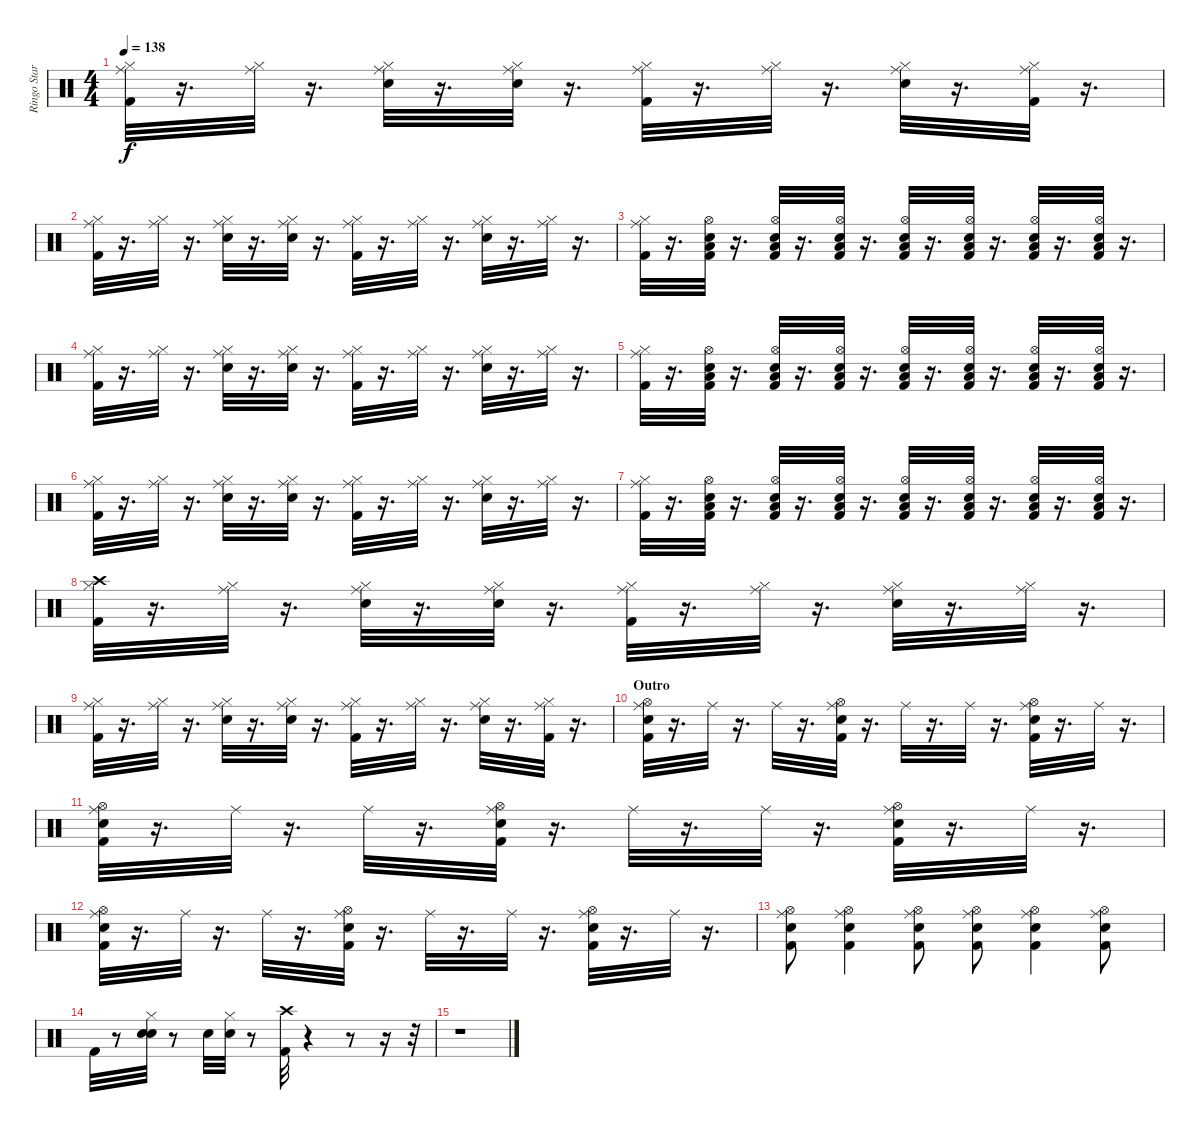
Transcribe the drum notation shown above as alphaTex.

\track ("Ringo Starr" "Ringo Star") {instrument percussion}
\staff {score}
\articulation defaults
\ts (4 4)
\tempo 138
\clef neutral
\ks c
("Kick (hit) 2" "Ride (middle)" "Hi-Hat (closed)").32{dy f} r.16{d} ("Hi-Hat (closed)" "Ride (middle)").32 r.16{d} ("Snare (hit) 2" "Ride (middle)" "Hi-Hat (closed)").32 r.16{d} ("Snare (hit) 2" "Ride (middle)" "Hi-Hat (closed)").32 r.16{d} ("Kick (hit) 2" "Ride (middle)" "Hi-Hat (closed)").32 r.16{d} ("Hi-Hat (closed)" "Ride (middle)").32 r.16{d} ("Snare (hit) 2" "Ride (middle)" "Hi-Hat (closed)").32 r.16{d} ("Kick (hit) 2" "Ride (middle)" "Hi-Hat (closed)").32 r.16{d} |
("Kick (hit) 2" "Hi-Hat (closed)" "Ride (middle)").32 r.16{d} ("Hi-Hat (closed)" "Ride (middle)").32 r.16{d} ("Snare (hit) 2" "Ride (middle)" "Hi-Hat (closed)").32 r.16{d} ("Snare (hit) 2" "Ride (middle)" "Hi-Hat (closed)").32 r.16{d} ("Kick (hit) 2" "Ride (middle)" "Hi-Hat (closed)").32 r.16{d} ("Hi-Hat (closed)" "Ride (middle)").32 r.16{d} ("Snare (hit) 2" "Ride (middle)" "Hi-Hat (closed)").32 r.16{d} ("Hi-Hat (closed)" "Ride (middle)").32 r.16{d} |
("Kick (hit) 2" "Ride (middle)" "Hi-Hat (closed)").32 r.16{d} ("Kick (hit) 2" "Hi-Hat (open)" "Snare (hit) 2" "Low Floor Tom (hit)").32 r.16{d} ("Kick (hit) 2" "Hi-Hat (open)" "Snare (hit) 2" "Low Floor Tom (hit)").32 r.16{d} ("Kick (hit) 2" "Hi-Hat (open)" "Snare (hit) 2" "Low Floor Tom (hit)").32 r.16{d} ("Kick (hit) 2" "Hi-Hat (open)" "Snare (hit) 2" "Low Floor Tom (hit)").32 r.16{d} ("Kick (hit) 2" "Snare (hit) 2" "Hi-Hat (open)" "Low Floor Tom (hit)").32 r.16{d} ("Kick (hit) 2" "Snare (hit) 2" "Hi-Hat (open)" "Low Floor Tom (hit)").32 r.16{d} ("Kick (hit) 2" "Snare (hit) 2" "Hi-Hat (open)" "Low Floor Tom (hit)").32 r.16{d} |
("Kick (hit) 2" "Ride (middle)" "Hi-Hat (closed)").32 r.16{d} ("Hi-Hat (closed)" "Ride (middle)").32 r.16{d} ("Snare (hit) 2" "Ride (middle)" "Hi-Hat (closed)").32 r.16{d} ("Snare (hit) 2" "Ride (middle)" "Hi-Hat (closed)").32 r.16{d} ("Kick (hit) 2" "Ride (middle)" "Hi-Hat (closed)").32 r.16{d} ("Hi-Hat (closed)" "Ride (middle)").32 r.16{d} ("Snare (hit) 2" "Ride (middle)" "Hi-Hat (closed)").32 r.16{d} ("Hi-Hat (closed)" "Ride (middle)").32 r.16{d} |
("Kick (hit) 2" "Ride (middle)" "Hi-Hat (closed)").32 r.16{d} ("Kick (hit) 2" "Hi-Hat (open)" "Snare (hit) 2" "Low Floor Tom (hit)").32 r.16{d} ("Kick (hit) 2" "Hi-Hat (open)" "Snare (hit) 2" "Low Floor Tom (hit)").32 r.16{d} ("Kick (hit) 2" "Hi-Hat (open)" "Snare (hit) 2" "Low Floor Tom (hit)").32 r.16{d} ("Kick (hit) 2" "Hi-Hat (open)" "Snare (hit) 2" "Low Floor Tom (hit)").32 r.16{d} ("Kick (hit) 2" "Snare (hit) 2" "Hi-Hat (open)" "Low Floor Tom (hit)").32 r.16{d} ("Kick (hit) 2" "Snare (hit) 2" "Hi-Hat (open)" "Low Floor Tom (hit)").32 r.16{d} ("Kick (hit) 2" "Snare (hit) 2" "Hi-Hat (open)" "Low Floor Tom (hit)").32 r.16{d} |
("Kick (hit) 2" "Hi-Hat (closed)" "Ride (middle)").32 r.16{d} ("Hi-Hat (closed)" "Ride (middle)").32 r.16{d} ("Snare (hit) 2" "Ride (middle)" "Hi-Hat (closed)").32 r.16{d} ("Snare (hit) 2" "Ride (middle)" "Hi-Hat (closed)").32 r.16{d} ("Kick (hit) 2" "Ride (middle)" "Hi-Hat (closed)").32 r.16{d} ("Hi-Hat (closed)" "Ride (middle)").32 r.16{d} ("Snare (hit) 2" "Ride (middle)" "Hi-Hat (closed)").32 r.16{d} ("Hi-Hat (closed)" "Ride (middle)").32 r.16{d} |
("Kick (hit) 2" "Ride (middle)" "Hi-Hat (closed)").32 r.16{d} ("Kick (hit) 2" "Hi-Hat (open)" "Snare (hit) 2" "Low Floor Tom (hit)").32 r.16{d} ("Kick (hit) 2" "Hi-Hat (open)" "Snare (hit) 2" "Low Floor Tom (hit)").32 r.16{d} ("Kick (hit) 2" "Hi-Hat (open)" "Snare (hit) 2" "Low Floor Tom (hit)").32 r.16{d} ("Kick (hit) 2" "Hi-Hat (open)" "Snare (hit) 2" "Low Floor Tom (hit)").32 r.16{d} ("Kick (hit) 2" "Snare (hit) 2" "Hi-Hat (open)" "Low Floor Tom (hit)").32 r.16{d} ("Kick (hit) 2" "Snare (hit) 2" "Hi-Hat (open)" "Low Floor Tom (hit)").32 r.16{d} ("Kick (hit) 2" "Snare (hit) 2" "Hi-Hat (open)" "Low Floor Tom (hit)").32 r.16{d} |
("Kick (hit) 2" "Hi-Hat (closed)" "Crash high (hit)").32 r.16{d} ("Hi-Hat (closed)" "Ride (middle)").32 r.16{d} ("Snare (hit) 2" "Ride (middle)" "Hi-Hat (closed)").32 r.16{d} ("Snare (hit) 2" "Ride (middle)" "Hi-Hat (closed)").32 r.16{d} ("Kick (hit) 2" "Ride (middle)" "Hi-Hat (closed)").32 r.16{d} ("Hi-Hat (closed)" "Ride (middle)").32 r.16{d} ("Snare (hit) 2" "Ride (middle)" "Hi-Hat (closed)").32 r.16{d} ("Hi-Hat (closed)" "Ride (middle)").32 r.16{d} |
("Kick (hit) 2" "Ride (middle)" "Hi-Hat (closed)").32 r.16{d} ("Hi-Hat (closed)" "Ride (middle)").32 r.16{d} ("Snare (hit) 2" "Ride (middle)" "Hi-Hat (closed)").32 r.16{d} ("Snare (hit) 2" "Ride (middle)" "Hi-Hat (closed)").32 r.16{d} ("Kick (hit) 2" "Ride (middle)" "Hi-Hat (closed)").32 r.16{d} ("Hi-Hat (closed)" "Ride (middle)").32 r.16{d} ("Snare (hit) 2" "Ride (middle)" "Hi-Hat (closed)").32 r.16{d} ("Kick (hit) 2" "Ride (middle)" "Hi-Hat (closed)").32 r.16{d} |
\section ("" "Outro")
("Kick (hit) 2" "Snare (hit) 2" "Hi-Hat (open)" "Ride (middle)").32 r.16{d} "Ride (middle)".32 r.16{d} "Ride (middle)".32 r.16{d} ("Kick (hit) 2" "Snare (hit) 2" "Hi-Hat (open)" "Ride (middle)").32 r.16{d} "Ride (middle)".32 r.16{d} "Ride (middle)".32 r.16{d} ("Kick (hit) 2" "Snare (hit) 2" "Hi-Hat (open)" "Ride (middle)").32 r.16{d} "Ride (middle)".32 r.16{d} |
("Kick (hit) 2" "Hi-Hat (open)" "Snare (hit) 2" "Ride (middle)").32 r.16{d} "Ride (middle)".32 r.16{d} "Ride (middle)".32 r.16{d} ("Kick (hit) 2" "Snare (hit) 2" "Hi-Hat (open)" "Ride (middle)").32 r.16{d} "Ride (middle)".32 r.16{d} "Ride (middle)".32 r.16{d} ("Kick (hit) 2" "Snare (hit) 2" "Hi-Hat (open)" "Ride (middle)").32 r.16{d} "Ride (middle)".32 r.16{d} |
("Kick (hit) 2" "Snare (hit) 2" "Hi-Hat (open)" "Ride (middle)").32 r.16{d} "Ride (middle)".32 r.16{d} "Ride (middle)".32 r.16{d} ("Kick (hit) 2" "Snare (hit) 2" "Hi-Hat (open)" "Ride (middle)").32 r.16{d} "Ride (middle)".32 r.16{d} "Ride (middle)".32 r.16{d} ("Kick (hit) 2" "Snare (hit) 2" "Hi-Hat (open)" "Ride (middle)").32 r.16{d} "Ride (middle)".32 r.16{d} |
("Kick (hit) 2" "Hi-Hat (open)" "Snare (hit) 2" "Ride (middle)").8 ("Kick (hit) 2" "Hi-Hat (open)" "Snare (hit) 2" "Ride (middle)").4 ("Kick (hit) 2" "Hi-Hat (open)" "Snare (hit) 2" "Ride (middle)").8 ("Kick (hit) 2" "Snare (hit) 2" "Hi-Hat (open)" "Ride (middle)").8 ("Kick (hit) 2" "Snare (hit) 2" "Hi-Hat (open)" "Ride (middle)").4 ("Kick (hit) 2" "Snare (hit) 2" "Hi-Hat (open)" "Ride (middle)").8 |
"Kick (hit) 2".32 r.8 ("Snare (hit) 2" "Snare (hit) 2" "Hi-Hat (closed)").32 r.8 "Snare (hit) 2".32 ("Snare (hit) 2" "Hi-Hat (closed)").32 r.8 ("Kick (hit) 2" "Crash high (hit)").32 r.4 r.8 r.16 r.32 |
r.1
